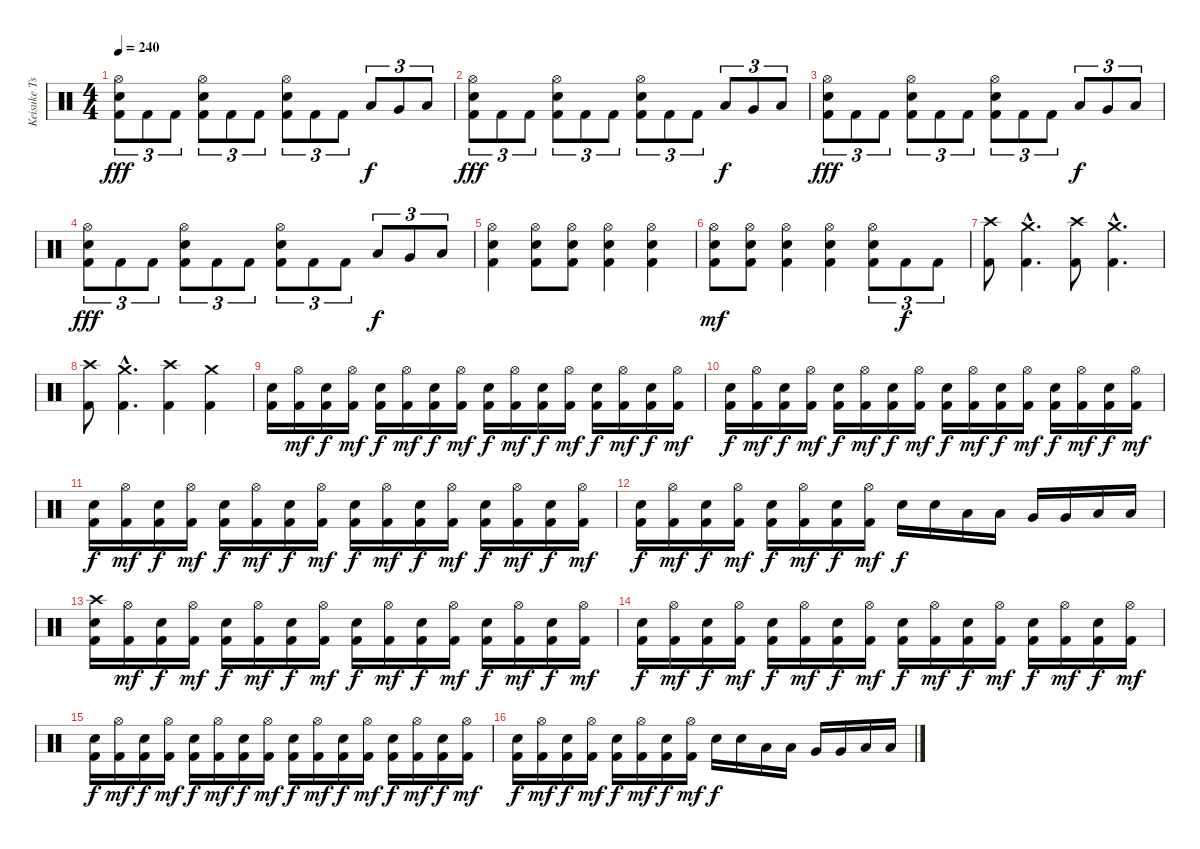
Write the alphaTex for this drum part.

\track ("Keisuke Tsuboi" "Keisuke Ts") {instrument percussion}
\staff {score}
\articulation defaults
\ts (4 4)
\tempo 240
\clef neutral
\ks c
("Hi-Hat (open)" "Electric Snare (hit)" "Kick (hit) 2").8{tu (3 2) dy fff} "Kick (hit) 2".8{tu (3 2)} "Kick (hit) 2".8{tu (3 2)} ("Hi-Hat (open)" "Electric Snare (hit)" "Kick (hit) 2").8{tu (3 2)} "Kick (hit) 2".8{tu (3 2)} "Kick (hit) 2".8{tu (3 2)} ("Hi-Hat (open)" "Electric Snare (hit)" "Kick (hit) 2").8{tu (3 2)} "Kick (hit) 2".8{tu (3 2)} "Kick (hit) 2".8{tu (3 2)} "Low Tom (hit)".8{tu (3 2) dy f} "Very Low Tom (hit)".8{tu (3 2)} "Low Floor Tom (hit)".8{tu (3 2)} |
("Hi-Hat (open)" "Electric Snare (hit)" "Kick (hit) 2").8{tu (3 2) dy fff} "Kick (hit) 2".8{tu (3 2)} "Kick (hit) 2".8{tu (3 2)} ("Hi-Hat (open)" "Electric Snare (hit)" "Kick (hit) 2").8{tu (3 2)} "Kick (hit) 2".8{tu (3 2)} "Kick (hit) 2".8{tu (3 2)} ("Hi-Hat (open)" "Electric Snare (hit)" "Kick (hit) 2").8{tu (3 2)} "Kick (hit) 2".8{tu (3 2)} "Kick (hit) 2".8{tu (3 2)} "Low Tom (hit)".8{tu (3 2) dy f} "Very Low Tom (hit)".8{tu (3 2)} "Low Floor Tom (hit)".8{tu (3 2)} |
("Hi-Hat (open)" "Electric Snare (hit)" "Kick (hit) 2").8{tu (3 2) dy fff} "Kick (hit) 2".8{tu (3 2)} "Kick (hit) 2".8{tu (3 2)} ("Hi-Hat (open)" "Electric Snare (hit)" "Kick (hit) 2").8{tu (3 2)} "Kick (hit) 2".8{tu (3 2)} "Kick (hit) 2".8{tu (3 2)} ("Hi-Hat (open)" "Electric Snare (hit)" "Kick (hit) 2").8{tu (3 2)} "Kick (hit) 2".8{tu (3 2)} "Kick (hit) 2".8{tu (3 2)} "Low Tom (hit)".8{tu (3 2) dy f} "Very Low Tom (hit)".8{tu (3 2)} "Low Floor Tom (hit)".8{tu (3 2)} |
("Hi-Hat (open)" "Electric Snare (hit)" "Kick (hit) 2").8{tu (3 2) dy fff} "Kick (hit) 2".8{tu (3 2)} "Kick (hit) 2".8{tu (3 2)} ("Hi-Hat (open)" "Electric Snare (hit)" "Kick (hit) 2").8{tu (3 2)} "Kick (hit) 2".8{tu (3 2)} "Kick (hit) 2".8{tu (3 2)} ("Hi-Hat (open)" "Electric Snare (hit)" "Kick (hit) 2").8{tu (3 2)} "Kick (hit) 2".8{tu (3 2)} "Kick (hit) 2".8{tu (3 2)} "Low Tom (hit)".8{tu (3 2) dy f} "Very Low Tom (hit)".8{tu (3 2)} "Low Floor Tom (hit)".8{tu (3 2)} |
("Hi-Hat (open)" "Electric Snare (hit)" "Kick (hit) 2").4 ("Hi-Hat (open)" "Electric Snare (hit)" "Kick (hit) 2").8 ("Hi-Hat (open)" "Electric Snare (hit)" "Kick (hit) 2").8 ("Hi-Hat (open)" "Electric Snare (hit)" "Kick (hit) 2").4 ("Hi-Hat (open)" "Electric Snare (hit)" "Kick (hit) 2").4 |
("Hi-Hat (open)" "Electric Snare (hit)" "Kick (hit) 2").8{dy mf} ("Hi-Hat (open)" "Electric Snare (hit)" "Kick (hit) 2").8 ("Hi-Hat (open)" "Electric Snare (hit)" "Kick (hit) 2").4 ("Hi-Hat (open)" "Electric Snare (hit)" "Kick (hit) 2").4 ("Hi-Hat (open)" "Electric Snare (hit)" "Kick (hit) 2").8{tu (3 2)} "Kick (hit) 2".8{tu (3 2) dy f} "Kick (hit) 2".8{tu (3 2)} |
("Crash high (hit)" "Kick (hit) 2").8 ("Crash medium (hit)"{hac} "Kick (hit) 2"{hac}).4{d} ("Crash high (hit)" "Kick (hit) 2").8 ("Crash medium (hit)"{hac} "Kick (hit) 2"{hac}).4{d} |
("Crash high (hit)" "Kick (hit) 2").8 ("Crash medium (hit)"{hac} "Kick (hit) 2"{hac}).4{d} ("Crash high (hit)" "Kick (hit) 2").4 ("Crash medium (hit)" "Kick (hit) 2").4 |
("Electric Snare (hit)" "Kick (hit) 2").16 ("Hi-Hat (open)" "Kick (hit) 2").16{dy mf} ("Electric Snare (hit)" "Kick (hit) 2").16{dy f} ("Hi-Hat (open)" "Kick (hit) 2").16{dy mf} ("Electric Snare (hit)" "Kick (hit) 2").16{dy f} ("Hi-Hat (open)" "Kick (hit) 2").16{dy mf} ("Electric Snare (hit)" "Kick (hit) 2").16{dy f} ("Hi-Hat (open)" "Kick (hit) 2").16{dy mf} ("Electric Snare (hit)" "Kick (hit) 2").16{dy f} ("Hi-Hat (open)" "Kick (hit) 2").16{dy mf} ("Electric Snare (hit)" "Kick (hit) 2").16{dy f} ("Hi-Hat (open)" "Kick (hit) 2").16{dy mf} ("Electric Snare (hit)" "Kick (hit) 2").16{dy f} ("Hi-Hat (open)" "Kick (hit) 2").16{dy mf} ("Electric Snare (hit)" "Kick (hit) 2").16{dy f} ("Hi-Hat (open)" "Kick (hit) 2").16{dy mf} |
("Electric Snare (hit)" "Kick (hit) 2").16{dy f} ("Hi-Hat (open)" "Kick (hit) 2").16{dy mf} ("Electric Snare (hit)" "Kick (hit) 2").16{dy f} ("Hi-Hat (open)" "Kick (hit) 2").16{dy mf} ("Electric Snare (hit)" "Kick (hit) 2").16{dy f} ("Hi-Hat (open)" "Kick (hit) 2").16{dy mf} ("Electric Snare (hit)" "Kick (hit) 2").16{dy f} ("Hi-Hat (open)" "Kick (hit) 2").16{dy mf} ("Electric Snare (hit)" "Kick (hit) 2").16{dy f} ("Hi-Hat (open)" "Kick (hit) 2").16{dy mf} ("Electric Snare (hit)" "Kick (hit) 2").16{dy f} ("Hi-Hat (open)" "Kick (hit) 2").16{dy mf} ("Electric Snare (hit)" "Kick (hit) 2").16{dy f} ("Hi-Hat (open)" "Kick (hit) 2").16{dy mf} ("Electric Snare (hit)" "Kick (hit) 2").16{dy f} ("Hi-Hat (open)" "Kick (hit) 2").16{dy mf} |
("Electric Snare (hit)" "Kick (hit) 2").16{dy f} ("Hi-Hat (open)" "Kick (hit) 2").16{dy mf} ("Electric Snare (hit)" "Kick (hit) 2").16{dy f} ("Hi-Hat (open)" "Kick (hit) 2").16{dy mf} ("Electric Snare (hit)" "Kick (hit) 2").16{dy f} ("Hi-Hat (open)" "Kick (hit) 2").16{dy mf} ("Electric Snare (hit)" "Kick (hit) 2").16{dy f} ("Hi-Hat (open)" "Kick (hit) 2").16{dy mf} ("Electric Snare (hit)" "Kick (hit) 2").16{dy f} ("Hi-Hat (open)" "Kick (hit) 2").16{dy mf} ("Electric Snare (hit)" "Kick (hit) 2").16{dy f} ("Hi-Hat (open)" "Kick (hit) 2").16{dy mf} ("Electric Snare (hit)" "Kick (hit) 2").16{dy f} ("Hi-Hat (open)" "Kick (hit) 2").16{dy mf} ("Electric Snare (hit)" "Kick (hit) 2").16{dy f} ("Hi-Hat (open)" "Kick (hit) 2").16{dy mf} |
("Electric Snare (hit)" "Kick (hit) 2").16{dy f} ("Hi-Hat (open)" "Kick (hit) 2").16{dy mf} ("Electric Snare (hit)" "Kick (hit) 2").16{dy f} ("Hi-Hat (open)" "Kick (hit) 2").16{dy mf} ("Electric Snare (hit)" "Kick (hit) 2").16{dy f} ("Hi-Hat (open)" "Kick (hit) 2").16{dy mf} ("Electric Snare (hit)" "Kick (hit) 2").16{dy f} ("Hi-Hat (open)" "Kick (hit) 2").16{dy mf} "Electric Snare (hit)".16{dy f} "Electric Snare (hit)".16 "Low Tom (hit)".16 "Low Tom (hit)".16 "Very Low Tom (hit)".16 "Very Low Tom (hit)".16 "Low Floor Tom (hit)".16 "Low Floor Tom (hit)".16 |
("Crash high (hit)" "Electric Snare (hit)" "Kick (hit) 2").16 ("Hi-Hat (open)" "Kick (hit) 2").16{dy mf} ("Electric Snare (hit)" "Kick (hit) 2").16{dy f} ("Hi-Hat (open)" "Kick (hit) 2").16{dy mf} ("Electric Snare (hit)" "Kick (hit) 2").16{dy f} ("Hi-Hat (open)" "Kick (hit) 2").16{dy mf} ("Electric Snare (hit)" "Kick (hit) 2").16{dy f} ("Hi-Hat (open)" "Kick (hit) 2").16{dy mf} ("Electric Snare (hit)" "Kick (hit) 2").16{dy f} ("Hi-Hat (open)" "Kick (hit) 2").16{dy mf} ("Electric Snare (hit)" "Kick (hit) 2").16{dy f} ("Hi-Hat (open)" "Kick (hit) 2").16{dy mf} ("Electric Snare (hit)" "Kick (hit) 2").16{dy f} ("Hi-Hat (open)" "Kick (hit) 2").16{dy mf} ("Electric Snare (hit)" "Kick (hit) 2").16{dy f} ("Hi-Hat (open)" "Kick (hit) 2").16{dy mf} |
("Electric Snare (hit)" "Kick (hit) 2").16{dy f} ("Hi-Hat (open)" "Kick (hit) 2").16{dy mf} ("Electric Snare (hit)" "Kick (hit) 2").16{dy f} ("Hi-Hat (open)" "Kick (hit) 2").16{dy mf} ("Electric Snare (hit)" "Kick (hit) 2").16{dy f} ("Hi-Hat (open)" "Kick (hit) 2").16{dy mf} ("Electric Snare (hit)" "Kick (hit) 2").16{dy f} ("Hi-Hat (open)" "Kick (hit) 2").16{dy mf} ("Electric Snare (hit)" "Kick (hit) 2").16{dy f} ("Hi-Hat (open)" "Kick (hit) 2").16{dy mf} ("Electric Snare (hit)" "Kick (hit) 2").16{dy f} ("Hi-Hat (open)" "Kick (hit) 2").16{dy mf} ("Electric Snare (hit)" "Kick (hit) 2").16{dy f} ("Hi-Hat (open)" "Kick (hit) 2").16{dy mf} ("Electric Snare (hit)" "Kick (hit) 2").16{dy f} ("Hi-Hat (open)" "Kick (hit) 2").16{dy mf} |
("Electric Snare (hit)" "Kick (hit) 2").16{dy f} ("Hi-Hat (open)" "Kick (hit) 2").16{dy mf} ("Electric Snare (hit)" "Kick (hit) 2").16{dy f} ("Hi-Hat (open)" "Kick (hit) 2").16{dy mf} ("Electric Snare (hit)" "Kick (hit) 2").16{dy f} ("Hi-Hat (open)" "Kick (hit) 2").16{dy mf} ("Electric Snare (hit)" "Kick (hit) 2").16{dy f} ("Hi-Hat (open)" "Kick (hit) 2").16{dy mf} ("Electric Snare (hit)" "Kick (hit) 2").16{dy f} ("Hi-Hat (open)" "Kick (hit) 2").16{dy mf} ("Electric Snare (hit)" "Kick (hit) 2").16{dy f} ("Hi-Hat (open)" "Kick (hit) 2").16{dy mf} ("Electric Snare (hit)" "Kick (hit) 2").16{dy f} ("Hi-Hat (open)" "Kick (hit) 2").16{dy mf} ("Electric Snare (hit)" "Kick (hit) 2").16{dy f} ("Hi-Hat (open)" "Kick (hit) 2").16{dy mf} |
("Electric Snare (hit)" "Kick (hit) 2").16{dy f} ("Hi-Hat (open)" "Kick (hit) 2").16{dy mf} ("Electric Snare (hit)" "Kick (hit) 2").16{dy f} ("Hi-Hat (open)" "Kick (hit) 2").16{dy mf} ("Electric Snare (hit)" "Kick (hit) 2").16{dy f} ("Hi-Hat (open)" "Kick (hit) 2").16{dy mf} ("Electric Snare (hit)" "Kick (hit) 2").16{dy f} ("Hi-Hat (open)" "Kick (hit) 2").16{dy mf} "Electric Snare (hit)".16{dy f} "Electric Snare (hit)".16 "Low Tom (hit)".16 "Low Tom (hit)".16 "Very Low Tom (hit)".16 "Very Low Tom (hit)".16 "Low Floor Tom (hit)".16 "Low Floor Tom (hit)".16
